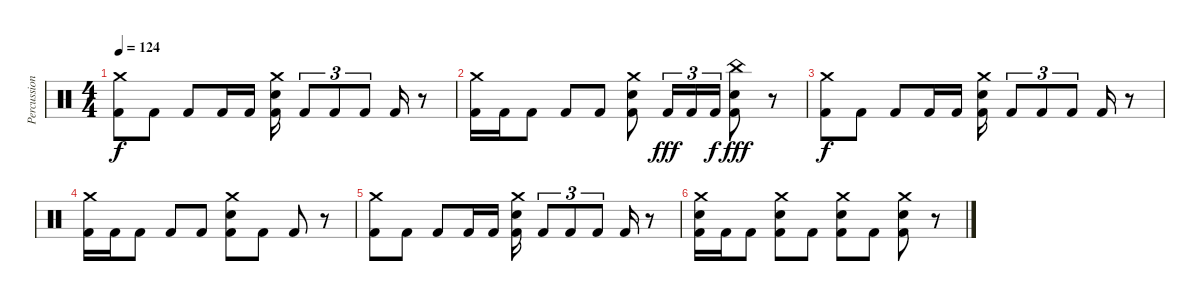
\track ("Percussion" "Percussion") {instrument percussion}
\staff {score}
\articulation defaults
\ts (4 4)
\tempo 124
\clef neutral
\ks c
("Crash medium (hit)" "Kick (hit) 2").8{dy f} "Kick (hit) 2".8 "Kick (hit) 2".8 "Kick (hit) 2".16 "Kick (hit) 2".16 ("Crash medium (hit)" "Electric Snare (hit)" "Kick (hit) 2").16 "Kick (hit) 2".8{tu (3 2)} "Kick (hit) 2".8{tu (3 2)} "Kick (hit) 2".8{tu (3 2)} "Kick (hit) 2".16 r.8 |
("Crash medium (hit)" "Kick (hit) 2").16 "Kick (hit) 2".16 "Kick (hit) 2".8 "Kick (hit) 2".8 "Kick (hit) 2".8 ("Crash medium (hit)" "Electric Snare (hit)" "Kick (hit) 2").8 "Kick (hit) 2".16{tu (3 2) dy fff} "Kick (hit) 2".16{tu (3 2)} "Kick (hit) 2".16{tu (3 2) dy f} ("China (hit)" "Electric Snare (hit)" "Kick (hit) 2").8{dy fff} r.8 |
("Crash medium (hit)" "Kick (hit) 2").8{dy f} "Kick (hit) 2".8 "Kick (hit) 2".8 "Kick (hit) 2".16 "Kick (hit) 2".16 ("Crash medium (hit)" "Electric Snare (hit)" "Kick (hit) 2").16 "Kick (hit) 2".8{tu (3 2)} "Kick (hit) 2".8{tu (3 2)} "Kick (hit) 2".8{tu (3 2)} "Kick (hit) 2".16 r.8 |
("Crash medium (hit)" "Kick (hit) 2").16 "Kick (hit) 2".16 "Kick (hit) 2".8 "Kick (hit) 2".8 "Kick (hit) 2".8 ("Crash medium (hit)" "Electric Snare (hit)" "Kick (hit) 2").8 "Kick (hit) 2".8 "Kick (hit) 2".8 r.8 |
("Crash medium (hit)" "Kick (hit) 2").8 "Kick (hit) 2".8 "Kick (hit) 2".8 "Kick (hit) 2".16 "Kick (hit) 2".16 ("Crash medium (hit)" "Electric Snare (hit)" "Kick (hit) 2").16 "Kick (hit) 2".8{tu (3 2)} "Kick (hit) 2".8{tu (3 2)} "Kick (hit) 2".8{tu (3 2)} "Kick (hit) 2".16 r.8 |
("Crash medium (hit)" "Electric Snare (hit)" "Kick (hit) 2").16 "Kick (hit) 2".16 "Kick (hit) 2".8 ("Crash medium (hit)" "Electric Snare (hit)" "Kick (hit) 2").8 "Kick (hit) 2".8 ("Crash medium (hit)" "Electric Snare (hit)" "Kick (hit) 2").8 "Kick (hit) 2".8 ("Crash medium (hit)" "Electric Snare (hit)" "Kick (hit) 2").8 r.8
